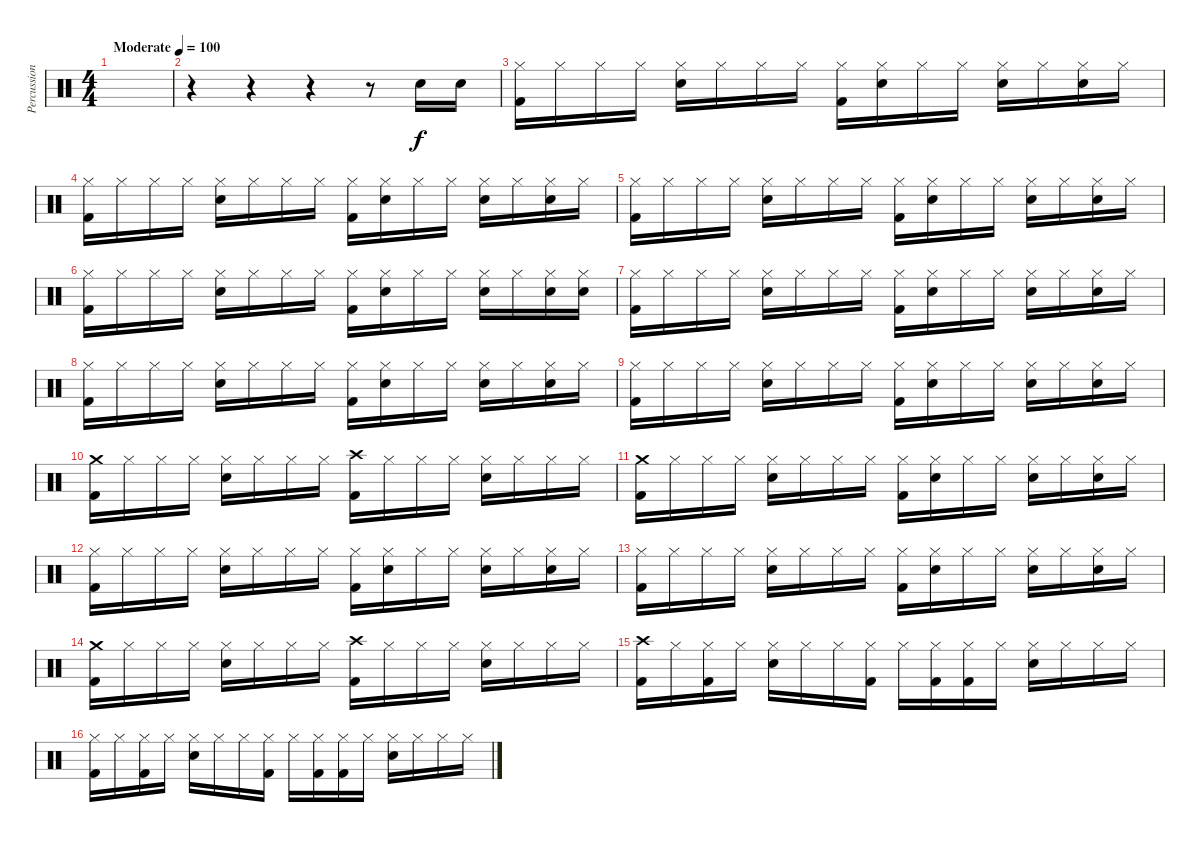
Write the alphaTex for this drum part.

\track ("Percussion" "Percussion") {instrument percussion}
\staff {score}
\articulation defaults
\ts (4 4)
\tempo (100 "Moderate")
\clef neutral
\ks c
|
r.4 r.4 r.4 r.8 "Snare (hit) 2".16 "Snare (hit) 2".16 |
("Hi-Hat (closed)" "Kick (hit) 2").16 "Hi-Hat (closed)".16 "Hi-Hat (closed)".16 "Hi-Hat (closed)".16 ("Hi-Hat (closed)" "Snare (hit) 2").16 "Hi-Hat (closed)".16 "Hi-Hat (closed)".16 "Hi-Hat (closed)".16 ("Hi-Hat (closed)" "Kick (hit) 2").16 ("Hi-Hat (closed)" "Snare (hit) 2").16 "Hi-Hat (closed)".16 "Hi-Hat (closed)".16 ("Hi-Hat (closed)" "Snare (hit) 2").16 "Hi-Hat (closed)".16 ("Hi-Hat (closed)" "Snare (hit) 2").16 "Hi-Hat (closed)".16 |
("Hi-Hat (closed)" "Kick (hit) 2").16 "Hi-Hat (closed)".16 "Hi-Hat (closed)".16 "Hi-Hat (closed)".16 ("Hi-Hat (closed)" "Snare (hit) 2").16 "Hi-Hat (closed)".16 "Hi-Hat (closed)".16 "Hi-Hat (closed)".16 ("Hi-Hat (closed)" "Kick (hit) 2").16 ("Hi-Hat (closed)" "Snare (hit) 2").16 "Hi-Hat (closed)".16 "Hi-Hat (closed)".16 ("Hi-Hat (closed)" "Snare (hit) 2").16 "Hi-Hat (closed)".16 ("Hi-Hat (closed)" "Snare (hit) 2").16 "Hi-Hat (closed)".16 |
("Hi-Hat (closed)" "Kick (hit) 2").16 "Hi-Hat (closed)".16 "Hi-Hat (closed)".16 "Hi-Hat (closed)".16 ("Hi-Hat (closed)" "Snare (hit) 2").16 "Hi-Hat (closed)".16 "Hi-Hat (closed)".16 "Hi-Hat (closed)".16 ("Hi-Hat (closed)" "Kick (hit) 2").16 ("Hi-Hat (closed)" "Snare (hit) 2").16 "Hi-Hat (closed)".16 "Hi-Hat (closed)".16 ("Hi-Hat (closed)" "Snare (hit) 2").16 "Hi-Hat (closed)".16 ("Hi-Hat (closed)" "Snare (hit) 2").16 "Hi-Hat (closed)".16 |
("Hi-Hat (closed)" "Kick (hit) 2").16 "Hi-Hat (closed)".16 "Hi-Hat (closed)".16 "Hi-Hat (closed)".16 ("Hi-Hat (closed)" "Snare (hit) 2").16 "Hi-Hat (closed)".16 "Hi-Hat (closed)".16 "Hi-Hat (closed)".16 ("Hi-Hat (closed)" "Kick (hit) 2").16 ("Hi-Hat (closed)" "Snare (hit) 2").16 "Hi-Hat (closed)".16 "Hi-Hat (closed)".16 ("Hi-Hat (closed)" "Snare (hit) 2").16 "Hi-Hat (closed)".16 ("Hi-Hat (closed)" "Snare (hit) 2").16 ("Hi-Hat (closed)" "Snare (hit) 2").16 |
("Hi-Hat (closed)" "Kick (hit) 2").16 "Hi-Hat (closed)".16 "Hi-Hat (closed)".16 "Hi-Hat (closed)".16 ("Hi-Hat (closed)" "Snare (hit) 2").16 "Hi-Hat (closed)".16 "Hi-Hat (closed)".16 "Hi-Hat (closed)".16 ("Hi-Hat (closed)" "Kick (hit) 2").16 ("Hi-Hat (closed)" "Snare (hit) 2").16 "Hi-Hat (closed)".16 "Hi-Hat (closed)".16 ("Hi-Hat (closed)" "Snare (hit) 2").16 "Hi-Hat (closed)".16 ("Hi-Hat (closed)" "Snare (hit) 2").16 "Hi-Hat (closed)".16 |
("Hi-Hat (closed)" "Kick (hit) 2").16 "Hi-Hat (closed)".16 "Hi-Hat (closed)".16 "Hi-Hat (closed)".16 ("Hi-Hat (closed)" "Snare (hit) 2").16 "Hi-Hat (closed)".16 "Hi-Hat (closed)".16 "Hi-Hat (closed)".16 ("Hi-Hat (closed)" "Kick (hit) 2").16 ("Hi-Hat (closed)" "Snare (hit) 2").16 "Hi-Hat (closed)".16 "Hi-Hat (closed)".16 ("Hi-Hat (closed)" "Snare (hit) 2").16 "Hi-Hat (closed)".16 ("Hi-Hat (closed)" "Snare (hit) 2").16 "Hi-Hat (closed)".16 |
("Hi-Hat (closed)" "Kick (hit) 2").16 "Hi-Hat (closed)".16 "Hi-Hat (closed)".16 "Hi-Hat (closed)".16 ("Hi-Hat (closed)" "Snare (hit) 2").16 "Hi-Hat (closed)".16 "Hi-Hat (closed)".16 "Hi-Hat (closed)".16 ("Hi-Hat (closed)" "Kick (hit) 2").16 ("Hi-Hat (closed)" "Snare (hit) 2").16 "Hi-Hat (closed)".16 "Hi-Hat (closed)".16 ("Hi-Hat (closed)" "Snare (hit) 2").16 "Hi-Hat (closed)".16 ("Hi-Hat (closed)" "Snare (hit) 2").16 "Hi-Hat (closed)".16 |
("Crash medium (hit)" "Kick (hit) 2").16 "Hi-Hat (closed)".16 "Hi-Hat (closed)".16 "Hi-Hat (closed)".16 ("Hi-Hat (closed)" "Snare (hit) 2").16 "Hi-Hat (closed)".16 "Hi-Hat (closed)".16 "Hi-Hat (closed)".16 ("Crash high (hit)" "Kick (hit) 2").16 "Hi-Hat (closed)".16 "Hi-Hat (closed)".16 "Hi-Hat (closed)".16 ("Hi-Hat (closed)" "Snare (hit) 2").16 "Hi-Hat (closed)".16 "Hi-Hat (closed)".16 "Hi-Hat (closed)".16 |
("Crash medium (hit)" "Kick (hit) 2").16 "Hi-Hat (closed)".16 "Hi-Hat (closed)".16 "Hi-Hat (closed)".16 ("Hi-Hat (closed)" "Snare (hit) 2").16 "Hi-Hat (closed)".16 "Hi-Hat (closed)".16 "Hi-Hat (closed)".16 ("Hi-Hat (closed)" "Kick (hit) 2").16 ("Hi-Hat (closed)" "Snare (hit) 2").16 "Hi-Hat (closed)".16 "Hi-Hat (closed)".16 ("Hi-Hat (closed)" "Snare (hit) 2").16 "Hi-Hat (closed)".16 ("Hi-Hat (closed)" "Snare (hit) 2").16 "Hi-Hat (closed)".16 |
("Hi-Hat (closed)" "Kick (hit) 2").16 "Hi-Hat (closed)".16 "Hi-Hat (closed)".16 "Hi-Hat (closed)".16 ("Hi-Hat (closed)" "Snare (hit) 2").16 "Hi-Hat (closed)".16 "Hi-Hat (closed)".16 "Hi-Hat (closed)".16 ("Hi-Hat (closed)" "Kick (hit) 2").16 ("Hi-Hat (closed)" "Snare (hit) 2").16 "Hi-Hat (closed)".16 "Hi-Hat (closed)".16 ("Hi-Hat (closed)" "Snare (hit) 2").16 "Hi-Hat (closed)".16 ("Hi-Hat (closed)" "Snare (hit) 2").16 "Hi-Hat (closed)".16 |
("Hi-Hat (closed)" "Kick (hit) 2").16 "Hi-Hat (closed)".16 "Hi-Hat (closed)".16 "Hi-Hat (closed)".16 ("Hi-Hat (closed)" "Snare (hit) 2").16 "Hi-Hat (closed)".16 "Hi-Hat (closed)".16 "Hi-Hat (closed)".16 ("Hi-Hat (closed)" "Kick (hit) 2").16 ("Hi-Hat (closed)" "Snare (hit) 2").16 "Hi-Hat (closed)".16 "Hi-Hat (closed)".16 ("Hi-Hat (closed)" "Snare (hit) 2").16 "Hi-Hat (closed)".16 ("Hi-Hat (closed)" "Snare (hit) 2").16 "Hi-Hat (closed)".16 |
("Crash medium (hit)" "Kick (hit) 2").16 "Hi-Hat (closed)".16 "Hi-Hat (closed)".16 "Hi-Hat (closed)".16 ("Hi-Hat (closed)" "Snare (hit) 2").16 "Hi-Hat (closed)".16 "Hi-Hat (closed)".16 "Hi-Hat (closed)".16 ("Crash high (hit)" "Kick (hit) 2").16 "Hi-Hat (closed)".16 "Hi-Hat (closed)".16 "Hi-Hat (closed)".16 ("Hi-Hat (closed)" "Snare (hit) 2").16 "Hi-Hat (closed)".16 "Hi-Hat (closed)".16 "Hi-Hat (closed)".16 |
("Crash high (hit)" "Kick (hit) 2").16 "Hi-Hat (closed)".16 ("Hi-Hat (closed)" "Kick (hit) 2").16 "Hi-Hat (closed)".16 ("Hi-Hat (closed)" "Snare (hit) 2").16 "Hi-Hat (closed)".16 "Hi-Hat (closed)".16 ("Hi-Hat (closed)" "Kick (hit) 2").16 "Hi-Hat (closed)".16 ("Hi-Hat (closed)" "Kick (hit) 2").16 ("Hi-Hat (closed)" "Kick (hit) 2").16 "Hi-Hat (closed)".16 ("Hi-Hat (closed)" "Snare (hit) 2").16 "Hi-Hat (closed)".16 "Hi-Hat (closed)".16 "Hi-Hat (closed)".16 |
("Hi-Hat (closed)" "Kick (hit) 2").16 "Hi-Hat (closed)".16 ("Hi-Hat (closed)" "Kick (hit) 2").16 "Hi-Hat (closed)".16 ("Hi-Hat (closed)" "Snare (hit) 2").16 "Hi-Hat (closed)".16 "Hi-Hat (closed)".16 ("Hi-Hat (closed)" "Kick (hit) 2").16 "Hi-Hat (closed)".16 ("Hi-Hat (closed)" "Kick (hit) 2").16 ("Hi-Hat (closed)" "Kick (hit) 2").16 "Hi-Hat (closed)".16 ("Hi-Hat (closed)" "Snare (hit) 2").16 "Hi-Hat (closed)".16 "Hi-Hat (closed)".16 "Hi-Hat (closed)".16
